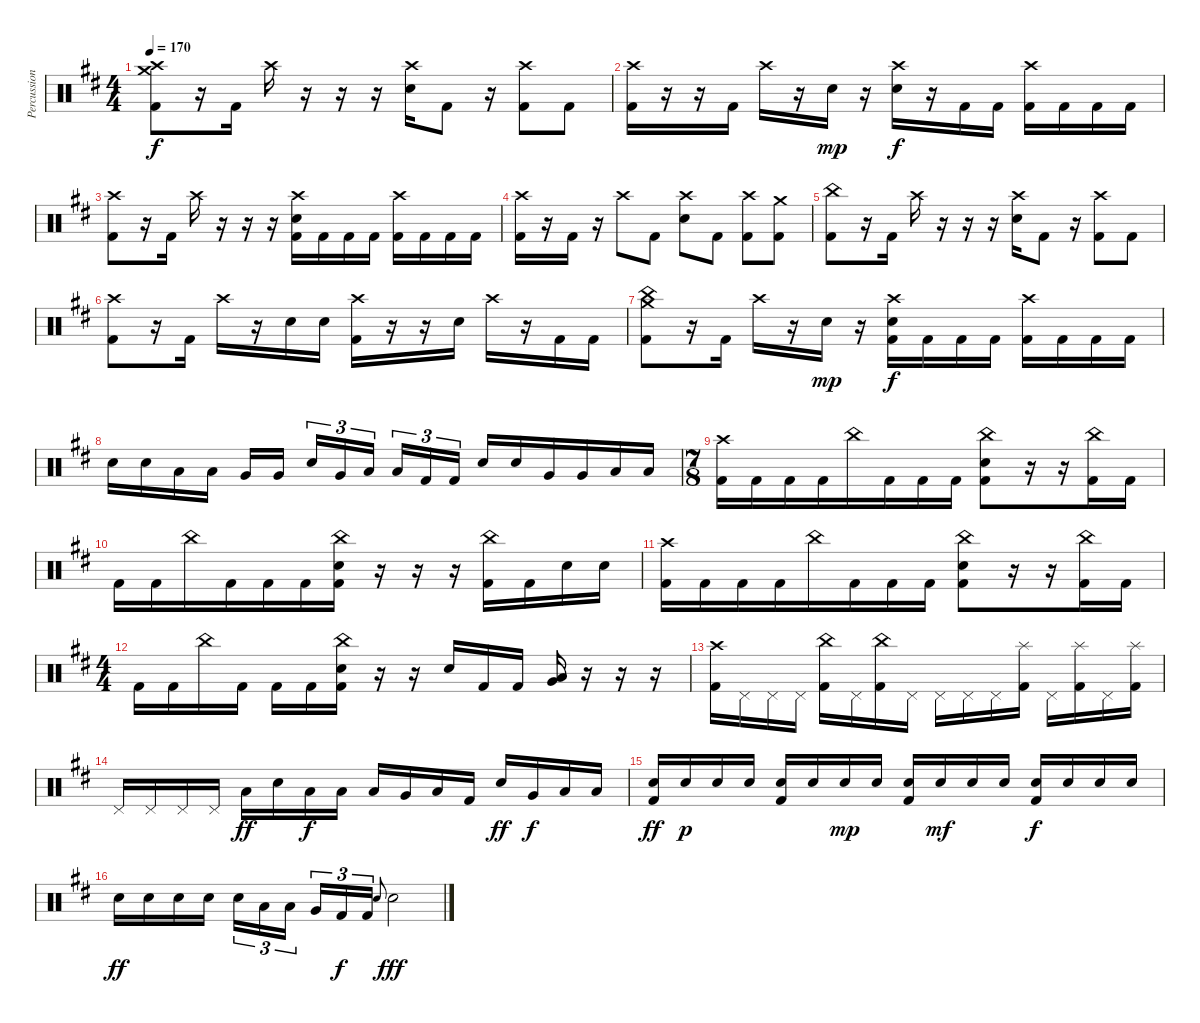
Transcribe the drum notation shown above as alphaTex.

\track ("Percussion" "Percussion") {instrument percussion}
\staff {score}
\articulation defaults
\ts (4 4)
\tempo 170
\clef neutral
\ks bminor
("Crash medium (hit)" "Crash high (hit)" "Kick (hit) 2").8{dy f} r.16 "Kick (hit) 2".16 "Crash high (hit)".16 r.16 r.16 r.16 ("Crash high (hit)" "Electric Snare (hit)").16 "Kick (hit) 2".8 r.16 ("Crash high (hit)" "Kick (hit) 2").8 "Kick (hit) 2".8 |
("Crash high (hit)" "Kick (hit) 2").16 r.16 r.16 "Kick (hit) 2".16 "Crash high (hit)".16 r.16 "Electric Snare (hit)".16{dy mp} r.16 ("Crash high (hit)" "Electric Snare (hit)").16{dy f} r.16 "Kick (hit) 2".16 "Kick (hit) 2".16 ("Crash high (hit)" "Kick (hit) 2").16 "Kick (hit) 2".16 "Kick (hit) 2".16 "Kick (hit) 2".16 |
("Crash high (hit)" "Kick (hit) 2").8 r.16 "Kick (hit) 2".16 "Crash high (hit)".16 r.16 r.16 r.16 ("Crash high (hit)" "Electric Snare (hit)" "Kick (hit) 2").16 "Kick (hit) 2".16 "Kick (hit) 2".16 "Kick (hit) 2".16 ("Crash high (hit)" "Kick (hit) 2").16 "Kick (hit) 2".16 "Kick (hit) 2".16 "Kick (hit) 2".16 |
("Crash high (hit)" "Kick (hit) 2").16 r.16 "Kick (hit) 2".16 r.16 "Crash high (hit)".8 "Kick (hit) 2".8 ("Crash high (hit)" "Electric Snare (hit)").8 "Kick (hit) 2".8 ("Crash high (hit)" "Kick (hit) 2").8 ("Crash medium (hit)" "Kick (hit) 2").8 |
("China (hit)" "Kick (hit) 2").8 r.16 "Kick (hit) 2".16 "Crash high (hit)".16 r.16 r.16 r.16 ("Crash high (hit)" "Electric Snare (hit)").16 "Kick (hit) 2".8 r.16 ("Crash high (hit)" "Kick (hit) 2").8 "Kick (hit) 2".8 |
("Crash high (hit)" "Kick (hit) 2").8 r.16 "Kick (hit) 2".16 "Crash high (hit)".16 r.16 "Electric Snare (hit)".16 "Electric Snare (hit)".16 ("Crash high (hit)" "Kick (hit) 2").16 r.16 r.16 "Electric Snare (hit)".16 "Crash high (hit)".16 r.16 "Kick (hit) 2".16 "Kick (hit) 2".16 |
("China (hit)" "Crash medium (hit)" "Kick (hit) 2").8 r.16 "Kick (hit) 2".16 "Crash high (hit)".16 r.16 "Electric Snare (hit)".16{dy mp} r.16 ("Crash high (hit)" "Electric Snare (hit)" "Kick (hit) 2").16{dy f} "Kick (hit) 2".16 "Kick (hit) 2".16 "Kick (hit) 2".16 ("Crash high (hit)" "Kick (hit) 2").16 "Kick (hit) 2".16 "Kick (hit) 2".16 "Kick (hit) 2".16 |
"Electric Snare (hit)".16 "Electric Snare (hit)".16 "Low Tom (hit)".16 "Low Tom (hit)".16 "Very Low Tom (hit)".16 "Very Low Tom (hit)".16{beam splitsecondary} "Electric Snare (hit)".16{tu (3 2)} "Very Low Tom (hit)".16{tu (3 2)} "Low Floor Tom (hit)".16{tu (3 2)} "Low Floor Tom (hit)".16{tu (3 2)} "Kick (hit) 2".16{tu (3 2)} "Kick (hit) 2".16{tu (3 2) beam splitsecondary} "Electric Snare (hit)".16 "Electric Snare (hit)".16{beam merge} "Very Low Tom (hit)".16 "Very Low Tom (hit)".16 "Low Floor Tom (hit)".16 "Low Floor Tom (hit)".16 |
\ts (7 8)
("Crash high (hit)" "Kick (hit) 2").16 "Kick (hit) 2".16 "Kick (hit) 2".16 "Kick (hit) 2".16 "China (hit)".16 "Kick (hit) 2".16 "Kick (hit) 2".16 "Kick (hit) 2".16 ("China (hit)" "Electric Snare (hit)" "Kick (hit) 2").8 r.16 r.16 ("China (hit)" "Kick (hit) 2").16 "Kick (hit) 2".16 |
"Kick (hit) 2".16 "Kick (hit) 2".16 "China (hit)".16 "Kick (hit) 2".16 "Kick (hit) 2".16 "Kick (hit) 2".16 ("China (hit)" "Electric Snare (hit)" "Kick (hit) 2").16 r.16 r.16 r.16 ("China (hit)" "Kick (hit) 2").16 "Kick (hit) 2".16 "Electric Snare (hit)".16 "Electric Snare (hit)".16 |
("Crash high (hit)" "Kick (hit) 2").16 "Kick (hit) 2".16 "Kick (hit) 2".16 "Kick (hit) 2".16 "China (hit)".16 "Kick (hit) 2".16 "Kick (hit) 2".16 "Kick (hit) 2".16 ("China (hit)" "Electric Snare (hit)" "Kick (hit) 2").8 r.16 r.16 ("China (hit)" "Kick (hit) 2").16 "Kick (hit) 2".16 |
\ts (4 4)
"Kick (hit) 2".16 "Kick (hit) 2".16 "China (hit)".16 "Kick (hit) 2".16 "Kick (hit) 2".16 "Kick (hit) 2".16 ("China (hit)" "Electric Snare (hit)" "Kick (hit) 2").16 r.16 r.16 "Electric Snare (hit)".16 "Kick (hit) 2".16 "Kick (hit) 2".16 ("Very Low Tom (hit)" "Low Tom (hit)").16 r.16{beam merge} r.16 r.16 |
("Crash high (hit)" "Kick (hit) 2").16 "Pedal Hi-Hat (hit)".16 "Pedal Hi-Hat (hit)".16 "Pedal Hi-Hat (hit)".16 ("China (hit)" "Kick (hit) 2").16 "Pedal Hi-Hat (hit)".16 ("China (hit)" "Kick (hit) 2").16 "Pedal Hi-Hat (hit)".16 "Pedal Hi-Hat (hit)".16 "Pedal Hi-Hat (hit)".16 "Pedal Hi-Hat (hit)".16 ("Splash (hit)" "Kick (hit) 2").16 "Pedal Hi-Hat (hit)".16 ("Splash (hit)" "Kick (hit) 2").16 "Pedal Hi-Hat (hit)".16 ("Splash (hit)" "Kick (hit) 2").16 |
"Pedal Hi-Hat (hit)".16 "Pedal Hi-Hat (hit)".16 "Pedal Hi-Hat (hit)".16 "Pedal Hi-Hat (hit)".16 "Low Floor Tom (hit)".16{dy ff} "Electric Snare (hit)".16 "Low Floor Tom (hit)".16{dy f} "Low Tom (hit)".16 "Low Floor Tom (hit)".16 "Very Low Tom (hit)".16 "Low Floor Tom (hit)".16 "Kick (hit) 2".16 "Electric Snare (hit)".16{dy ff} "Very Low Tom (hit)".16{dy f beam merge} "Low Floor Tom (hit)".16 "Low Floor Tom (hit)".16 |
("Electric Snare (hit)" "Kick (hit) 2").16{dy ff} "Electric Snare (hit)".16{dy p} "Electric Snare (hit)".16 "Electric Snare (hit)".16 ("Electric Snare (hit)" "Kick (hit) 2").16 "Electric Snare (hit)".16 "Electric Snare (hit)".16{dy mp} "Electric Snare (hit)".16 ("Electric Snare (hit)" "Kick (hit) 2").16 "Electric Snare (hit)".16{dy mf} "Electric Snare (hit)".16 "Electric Snare (hit)".16 ("Electric Snare (hit)" "Kick (hit) 2").16{dy f} "Electric Snare (hit)".16 "Electric Snare (hit)".16 "Electric Snare (hit)".16 |
"Electric Snare (hit)".16{dy ff} "Electric Snare (hit)".16 "Electric Snare (hit)".16 "Electric Snare (hit)".16 "Electric Snare (hit)".16{tu (3 2)} "Low Tom (hit)".16{tu (3 2)} "Low Floor Tom (hit)".16{tu (3 2) beam splitsecondary} "Very Low Tom (hit)".16{tu (3 2) beam merge} "Kick (hit) 2".16{tu (3 2) dy f} "Kick (hit) 2".16{tu (3 2)} "Electric Snare (hit)".8{gr onbeat} "Electric Snare (hit)".2{dy fff}
